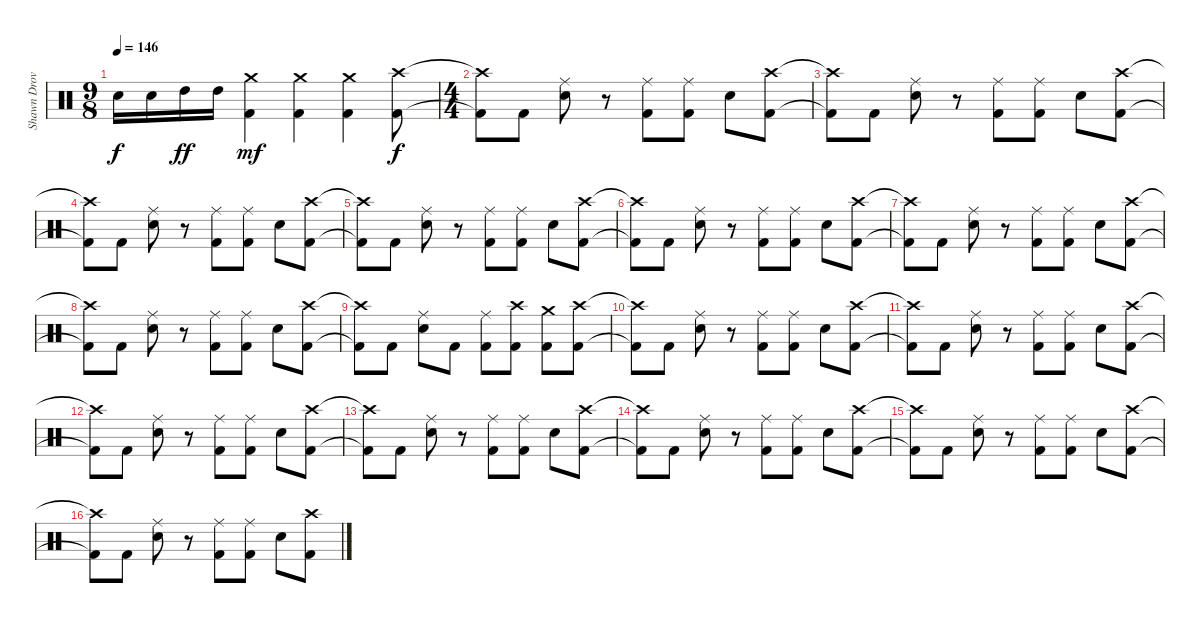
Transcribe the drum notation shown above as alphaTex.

\track ("Shawn Drover" "Shawn Drov") {instrument percussion}
\staff {score}
\articulation defaults
\ts (9 8)
\tempo 146
\clef neutral
\ks c "Snare (hit) 2".16{dy f} "Snare (hit) 2".16 "High Tom (hit)".16{dy ff} "High Tom (hit)".16
("Crash medium (hit)" "Kick (hit) 2").4{dy mf} ("Crash medium (hit)" "Kick (hit) 2").4 ("Crash medium (hit)" "Kick (hit) 2").4 ("Crash high (hit)" "Kick (hit) 2").8{dy f} |
\ts (4 4)
("Crash high (hit)"{t} "Kick (hit) 2"{t}).8 "Kick (hit) 2".8 ("Ride (middle)" "Snare (hit) 2").8 r.8 ("Ride (middle)" "Kick (hit) 2").8 ("Ride (middle)" "Kick (hit) 2").8 "Snare (hit) 2".8 ("Crash high (hit)" "Kick (hit) 2").8 |
("Crash high (hit)"{t} "Kick (hit) 2"{t}).8 "Kick (hit) 2".8 ("Ride (middle)" "Snare (hit) 2").8 r.8 ("Ride (middle)" "Kick (hit) 2").8 ("Ride (middle)" "Kick (hit) 2").8 "Snare (hit) 2".8 ("Crash high (hit)" "Kick (hit) 2").8 |
("Crash high (hit)"{t} "Kick (hit) 2"{t}).8 "Kick (hit) 2".8 ("Ride (middle)" "Snare (hit) 2").8 r.8 ("Ride (middle)" "Kick (hit) 2").8 ("Ride (middle)" "Kick (hit) 2").8 "Snare (hit) 2".8 ("Crash high (hit)" "Kick (hit) 2").8 |
("Crash high (hit)"{t} "Kick (hit) 2"{t}).8 "Kick (hit) 2".8 ("Ride (middle)" "Snare (hit) 2").8 r.8 ("Ride (middle)" "Kick (hit) 2").8 ("Ride (middle)" "Kick (hit) 2").8 "Snare (hit) 2".8 ("Crash high (hit)" "Kick (hit) 2").8 |
("Crash high (hit)"{t} "Kick (hit) 2"{t}).8 "Kick (hit) 2".8 ("Ride (middle)" "Snare (hit) 2").8 r.8 ("Ride (middle)" "Kick (hit) 2").8 ("Ride (middle)" "Kick (hit) 2").8 "Snare (hit) 2".8 ("Crash high (hit)" "Kick (hit) 2").8 |
("Crash high (hit)"{t} "Kick (hit) 2"{t}).8 "Kick (hit) 2".8 ("Ride (middle)" "Snare (hit) 2").8 r.8 ("Ride (middle)" "Kick (hit) 2").8 ("Ride (middle)" "Kick (hit) 2").8 "Snare (hit) 2".8 ("Crash high (hit)" "Kick (hit) 2").8 |
("Crash high (hit)"{t} "Kick (hit) 2"{t}).8 "Kick (hit) 2".8 ("Ride (middle)" "Snare (hit) 2").8 r.8 ("Ride (middle)" "Kick (hit) 2").8 ("Ride (middle)" "Kick (hit) 2").8 "Snare (hit) 2".8 ("Crash high (hit)" "Kick (hit) 2").8 |
("Crash high (hit)"{t} "Kick (hit) 2"{t}).8 "Kick (hit) 2".8 ("Ride (middle)" "Snare (hit) 2").8 "Kick (hit) 2".8 ("Ride (middle)" "Kick (hit) 2").8 ("Crash high (hit)" "Kick (hit) 2").8 ("Crash medium (hit)" "Kick (hit) 2").8 ("Crash high (hit)" "Kick (hit) 2").8 |
("Crash high (hit)"{t} "Kick (hit) 2"{t}).8 "Kick (hit) 2".8 ("Ride (middle)" "Snare (hit) 2").8 r.8 ("Ride (middle)" "Kick (hit) 2").8 ("Ride (middle)" "Kick (hit) 2").8 "Snare (hit) 2".8 ("Crash high (hit)" "Kick (hit) 2").8 |
("Crash high (hit)"{t} "Kick (hit) 2"{t}).8 "Kick (hit) 2".8 ("Ride (middle)" "Snare (hit) 2").8 r.8 ("Ride (middle)" "Kick (hit) 2").8 ("Ride (middle)" "Kick (hit) 2").8 "Snare (hit) 2".8 ("Crash high (hit)" "Kick (hit) 2").8 |
("Crash high (hit)"{t} "Kick (hit) 2"{t}).8 "Kick (hit) 2".8 ("Ride (middle)" "Snare (hit) 2").8 r.8 ("Ride (middle)" "Kick (hit) 2").8 ("Ride (middle)" "Kick (hit) 2").8 "Snare (hit) 2".8 ("Crash high (hit)" "Kick (hit) 2").8 |
("Crash high (hit)"{t} "Kick (hit) 2"{t}).8 "Kick (hit) 2".8 ("Ride (middle)" "Snare (hit) 2").8 r.8 ("Ride (middle)" "Kick (hit) 2").8 ("Ride (middle)" "Kick (hit) 2").8 "Snare (hit) 2".8 ("Crash high (hit)" "Kick (hit) 2").8 |
("Crash high (hit)"{t} "Kick (hit) 2"{t}).8 "Kick (hit) 2".8 ("Ride (middle)" "Snare (hit) 2").8 r.8 ("Ride (middle)" "Kick (hit) 2").8 ("Ride (middle)" "Kick (hit) 2").8 "Snare (hit) 2".8 ("Crash high (hit)" "Kick (hit) 2").8 |
("Crash high (hit)"{t} "Kick (hit) 2"{t}).8 "Kick (hit) 2".8 ("Ride (middle)" "Snare (hit) 2").8 r.8 ("Ride (middle)" "Kick (hit) 2").8 ("Ride (middle)" "Kick (hit) 2").8 "Snare (hit) 2".8 ("Crash high (hit)" "Kick (hit) 2").8 |
("Crash high (hit)"{t} "Kick (hit) 2"{t}).8 "Kick (hit) 2".8 ("Ride (middle)" "Snare (hit) 2").8 r.8 ("Ride (middle)" "Kick (hit) 2").8 ("Ride (middle)" "Kick (hit) 2").8 "Snare (hit) 2".8 ("Crash high (hit)" "Kick (hit) 2").8
